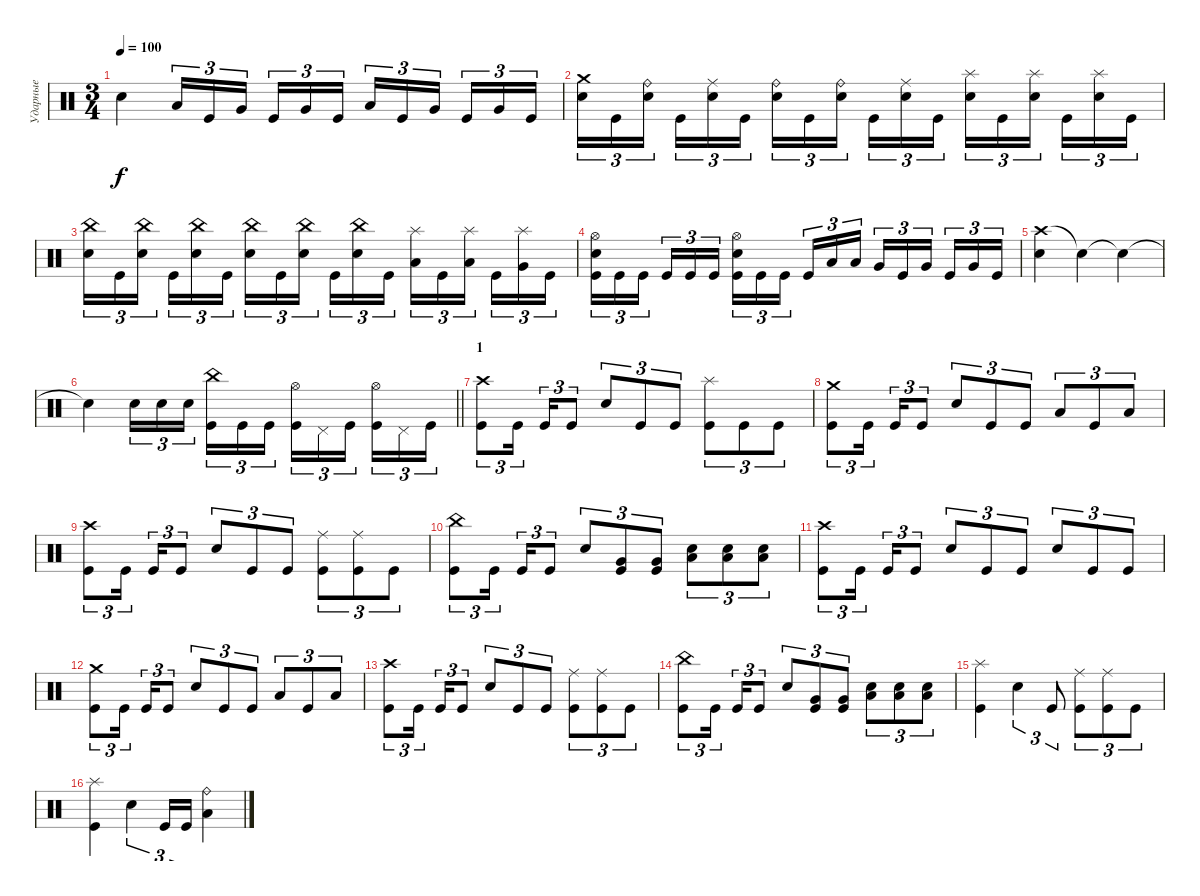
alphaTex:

\track ("Ударные" "Ударные") {instrument percussion}
\staff {score}
\articulation defaults
\ts (3 4)
\tempo 100
\clef neutral
\ks c "Snare (hit)"{t}.4{dy f} "Low Tom (hit)".16{tu (3 2)} "Kick (hit)".16{tu (3 2)} "Very Low Tom (hit)".16{tu (3 2) beam splitsecondary} "Kick (hit)".16{tu (3 2)} "Very Low Tom (hit)".16{tu (3 2)} "Kick (hit)".16{tu (3 2)} "Low Tom (hit)".16{tu (3 2)} "Kick (hit)".16{tu (3 2)} "Very Low Tom (hit)".16{tu (3 2) beam splitsecondary} "Kick (hit)".16{tu (3 2)} "Very Low Tom (hit)".16{tu (3 2)} "Kick (hit)".16{tu (3 2)}
|
("Crash medium (hit)" "Electric Snare (hit)").16{tu (3 2)} "Kick (hit)".16{tu (3 2)} ("Ride (bell)" "Electric Snare (hit)").16{tu (3 2) beam splitsecondary} "Kick (hit)".16{tu (3 2)} ("Ride (middle)" "Electric Snare (hit)").16{tu (3 2)} "Kick (hit)".16{tu (3 2)} ("Ride (bell)" "Electric Snare (hit)").16{tu (3 2)} "Kick (hit)".16{tu (3 2)} ("Ride (bell)" "Electric Snare (hit)").16{tu (3 2) beam splitsecondary} "Kick (hit)".16{tu (3 2)} ("Ride (middle)" "Electric Snare (hit)").16{tu (3 2)} "Kick (hit)".16{tu (3 2)} ("Splash (hit)" "Electric Snare (hit)").16{tu (3 2)} "Kick (hit)".16{tu (3 2)} ("Splash (hit)" "Electric Snare (hit)").16{tu (3 2) beam splitsecondary} "Kick (hit)".16{tu (3 2)} ("Splash (hit)" "Electric Snare (hit)").16{tu (3 2)} "Kick (hit)".16{tu (3 2)} |
("China (hit)" "Electric Snare (hit)").16{tu (3 2)} "Kick (hit)".16{tu (3 2)} ("China (hit)" "Electric Snare (hit)").16{tu (3 2) beam splitsecondary} "Kick (hit)".16{tu (3 2)} ("China (hit)" "Electric Snare (hit)").16{tu (3 2)} "Kick (hit)".16{tu (3 2)} ("China (hit)" "Electric Snare (hit)").16{tu (3 2)} "Kick (hit)".16{tu (3 2)} ("China (hit)" "Electric Snare (hit)").16{tu (3 2) beam splitsecondary} "Kick (hit)".16{tu (3 2)} ("China (hit)" "Electric Snare (hit)").16{tu (3 2)} "Kick (hit)".16{tu (3 2)} ("Splash (hit)" "Low Tom (hit)").16{tu (3 2)} "Kick (hit)".16{tu (3 2)} ("Splash (hit)" "Low Tom (hit)").16{tu (3 2) beam splitsecondary} "Kick (hit)".16{tu (3 2)} ("Splash (hit)" "Very Low Tom (hit)").16{tu (3 2)} "Kick (hit)".16{tu (3 2)} |
("Hi-Hat (open)" "Electric Snare (hit)" "Kick (hit)").16{tu (3 2)} "Kick (hit)".16{tu (3 2)} "Kick (hit)".16{tu (3 2) beam splitsecondary} "Kick (hit)".16{tu (3 2)} "Kick (hit)".16{tu (3 2)} "Kick (hit)".16{tu (3 2)} ("Hi-Hat (open)" "Electric Snare (hit)" "Kick (hit)").16{tu (3 2)} "Kick (hit)".16{tu (3 2)} "Kick (hit)".16{tu (3 2) beam splitsecondary} "Kick (hit)".16{tu (3 2)} "Low Tom (hit)".16{tu (3 2)} "Low Tom (hit)".16{tu (3 2)} "Very Low Tom (hit)".16{tu (3 2)} "Kick (hit)".16{tu (3 2)} "Very Low Tom (hit)".16{tu (3 2) beam splitsecondary} "Kick (hit)".16{tu (3 2)} "Very Low Tom (hit)".16{tu (3 2)} "Kick (hit)".16{tu (3 2)} |
("Crash high (hit)" "Electric Snare (hit)").4 "Snare (hit)"{t}.4 "Snare (hit)"{t}.4 |
\barLineRight lightlight "Snare (hit)"{t}.4 "Electric Snare (hit)".16{tu (3 2)} "Electric Snare (hit)".16{tu (3 2)} "Electric Snare (hit)".16{tu (3 2) beam splitsecondary}
("China (hit)" "Kick (hit)").16{tu (3 2)} "Kick (hit)".16{tu (3 2)} "Kick (hit)".16{tu (3 2)} ("Hi-Hat (open)" "Kick (hit)").16{tu (3 2)} "Pedal Hi-Hat (hit)".16{tu (3 2)} "Kick (hit)".16{tu (3 2) beam splitsecondary} ("Hi-Hat (open)" "Kick (hit)").16{tu (3 2)} "Pedal Hi-Hat (hit)".16{tu (3 2)} "Kick (hit)".16{tu (3 2)} |
\section ("" "1")
("Crash high (hit)" "Kick (hit)").8{tu (3 2)} "Kick (hit)".16{tu (3 2) beam splitsecondary} "Kick (hit)".16{tu (3 2)} "Kick (hit)".8{tu (3 2)} "Electric Snare (hit)".8{tu (3 2)} "Kick (hit)".8{tu (3 2)} "Kick (hit)".8{tu (3 2)} ("Splash (hit)" "Kick (hit)").8{tu (3 2)} "Kick (hit)".8{tu (3 2)} "Kick (hit)".8{tu (3 2)} |
("Crash medium (hit)" "Kick (hit)").8{tu (3 2)} "Kick (hit)".16{tu (3 2) beam splitsecondary} "Kick (hit)".16{tu (3 2)} "Kick (hit)".8{tu (3 2)} "Electric Snare (hit)".8{tu (3 2)} "Kick (hit)".8{tu (3 2)} "Kick (hit)".8{tu (3 2)} "Low Tom (hit)".8{tu (3 2)} "Kick (hit)".8{tu (3 2)} "Low Tom (hit)".8{tu (3 2)} |
("Crash high (hit)" "Kick (hit)").8{tu (3 2)} "Kick (hit)".16{tu (3 2) beam splitsecondary} "Kick (hit)".16{tu (3 2)} "Kick (hit)".8{tu (3 2)} "Electric Snare (hit)".8{tu (3 2)} "Kick (hit)".8{tu (3 2)} "Kick (hit)".8{tu (3 2)} ("Ride (middle)" "Kick (hit)").8{tu (3 2)} ("Ride (middle)" "Kick (hit)").8{tu (3 2)} "Kick (hit)".8{tu (3 2)} |
("China (hit)" "Kick (hit)").8{tu (3 2)} "Kick (hit)".16{tu (3 2) beam splitsecondary} "Kick (hit)".16{tu (3 2)} "Kick (hit)".8{tu (3 2)} "Electric Snare (hit)".8{tu (3 2)} ("Very Low Tom (hit)" "Kick (hit)").8{tu (3 2)} ("Very Low Tom (hit)" "Kick (hit)").8{tu (3 2)} ("Low Floor Tom (hit)" "Electric Snare (hit)").8{tu (3 2)} ("Low Floor Tom (hit)" "Electric Snare (hit)").8{tu (3 2)} ("Low Floor Tom (hit)" "Electric Snare (hit)").8{tu (3 2)} |
("Crash high (hit)" "Kick (hit)").8{tu (3 2)} "Kick (hit)".16{tu (3 2) beam splitsecondary} "Kick (hit)".16{tu (3 2)} "Kick (hit)".8{tu (3 2)} "Electric Snare (hit)".8{tu (3 2)} "Kick (hit)".8{tu (3 2)} "Kick (hit)".8{tu (3 2)} "Electric Snare (hit)".8{tu (3 2)} "Kick (hit)".8{tu (3 2)} "Kick (hit)".8{tu (3 2)} |
("Crash medium (hit)" "Kick (hit)").8{tu (3 2)} "Kick (hit)".16{tu (3 2) beam splitsecondary} "Kick (hit)".16{tu (3 2)} "Kick (hit)".8{tu (3 2)} "Electric Snare (hit)".8{tu (3 2)} "Kick (hit)".8{tu (3 2)} "Kick (hit)".8{tu (3 2)} "Low Tom (hit)".8{tu (3 2)} "Kick (hit)".8{tu (3 2)} "Low Tom (hit)".8{tu (3 2)} |
("Crash high (hit)" "Kick (hit)").8{tu (3 2)} "Kick (hit)".16{tu (3 2) beam splitsecondary} "Kick (hit)".16{tu (3 2)} "Kick (hit)".8{tu (3 2)} "Electric Snare (hit)".8{tu (3 2)} "Kick (hit)".8{tu (3 2)} "Kick (hit)".8{tu (3 2)} ("Ride (middle)" "Kick (hit)").8{tu (3 2)} ("Ride (middle)" "Kick (hit)").8{tu (3 2)} "Kick (hit)".8{tu (3 2)} |
("China (hit)" "Kick (hit)").8{tu (3 2)} "Kick (hit)".16{tu (3 2) beam splitsecondary} "Kick (hit)".16{tu (3 2)} "Kick (hit)".8{tu (3 2)} "Electric Snare (hit)".8{tu (3 2)} ("Very Low Tom (hit)" "Kick (hit)").8{tu (3 2)} ("Very Low Tom (hit)" "Kick (hit)").8{tu (3 2)} ("Low Floor Tom (hit)" "Electric Snare (hit)").8{tu (3 2)} ("Low Floor Tom (hit)" "Electric Snare (hit)").8{tu (3 2)} ("Low Floor Tom (hit)" "Electric Snare (hit)").8{tu (3 2)} |
("Splash (hit)" "Kick (hit)").4 "Electric Snare (hit)".4{tu (3 2)} "Kick (hit)".8{tu (3 2)} ("Ride (middle)" "Kick (hit)").8{tu (3 2)} ("Ride (middle)" "Kick (hit)").8{tu (3 2)} "Kick (hit)".8{tu (3 2)} |
("Splash (hit)" "Kick (hit)").4 "Electric Snare (hit)".4{tu (3 2)} "Kick (hit)".16{tu (3 2)} "Kick (hit)".16{tu (3 2)} ("Ride (bell)" "Low Floor Tom (hit)").4
